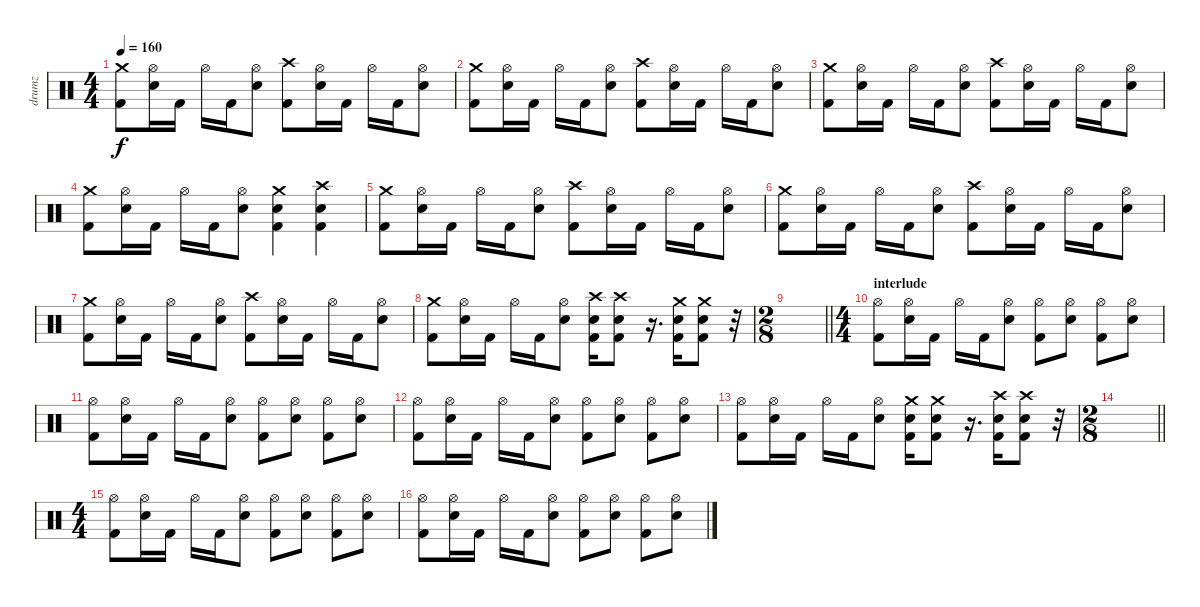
\track ("drumz" "drumz") {instrument percussion}
\staff {score}
\articulation defaults
\ts (4 4)
\tempo 160
\clef neutral
\ks c
("Crash medium (hit)" "Kick (hit) 2").8{dy f} ("Hi-Hat (open)" "Electric Snare (hit)").16 "Kick (hit) 2".16 "Hi-Hat (open)".16 "Kick (hit) 2".16 ("Hi-Hat (open)" "Electric Snare (hit)").8 ("Crash high (hit)" "Kick (hit) 2").8 ("Hi-Hat (open)" "Electric Snare (hit)").16 "Kick (hit) 2".16 "Hi-Hat (open)".16 "Kick (hit) 2".16 ("Hi-Hat (open)" "Electric Snare (hit)").8 |
("Crash medium (hit)" "Kick (hit) 2").8 ("Hi-Hat (open)" "Electric Snare (hit)").16 "Kick (hit) 2".16 "Hi-Hat (open)".16 "Kick (hit) 2".16 ("Hi-Hat (open)" "Electric Snare (hit)").8 ("Crash high (hit)" "Kick (hit) 2").8 ("Hi-Hat (open)" "Electric Snare (hit)").16 "Kick (hit) 2".16 "Hi-Hat (open)".16 "Kick (hit) 2".16 ("Hi-Hat (open)" "Electric Snare (hit)").8 |
("Crash medium (hit)" "Kick (hit) 2").8 ("Hi-Hat (open)" "Electric Snare (hit)").16 "Kick (hit) 2".16 "Hi-Hat (open)".16 "Kick (hit) 2".16 ("Hi-Hat (open)" "Electric Snare (hit)").8 ("Crash high (hit)" "Kick (hit) 2").8 ("Hi-Hat (open)" "Electric Snare (hit)").16 "Kick (hit) 2".16 "Hi-Hat (open)".16 "Kick (hit) 2".16 ("Hi-Hat (open)" "Electric Snare (hit)").8 |
("Crash medium (hit)" "Kick (hit) 2").8 ("Hi-Hat (open)" "Electric Snare (hit)").16 "Kick (hit) 2".16 "Hi-Hat (open)".16 "Kick (hit) 2".16 ("Hi-Hat (open)" "Electric Snare (hit)").8 ("Crash medium (hit)" "Electric Snare (hit)" "Kick (hit) 2").4 ("Crash high (hit)" "Electric Snare (hit)" "Kick (hit) 2").4 |
("Crash medium (hit)" "Kick (hit) 2").8 ("Hi-Hat (open)" "Electric Snare (hit)").16 "Kick (hit) 2".16 "Hi-Hat (open)".16 "Kick (hit) 2".16 ("Hi-Hat (open)" "Electric Snare (hit)").8 ("Crash high (hit)" "Kick (hit) 2").8 ("Hi-Hat (open)" "Electric Snare (hit)").16 "Kick (hit) 2".16 "Hi-Hat (open)".16 "Kick (hit) 2".16 ("Hi-Hat (open)" "Electric Snare (hit)").8 |
("Crash medium (hit)" "Kick (hit) 2").8 ("Hi-Hat (open)" "Electric Snare (hit)").16 "Kick (hit) 2".16 "Hi-Hat (open)".16 "Kick (hit) 2".16 ("Hi-Hat (open)" "Electric Snare (hit)").8 ("Crash high (hit)" "Kick (hit) 2").8 ("Hi-Hat (open)" "Electric Snare (hit)").16 "Kick (hit) 2".16 "Hi-Hat (open)".16 "Kick (hit) 2".16 ("Hi-Hat (open)" "Electric Snare (hit)").8 |
("Crash medium (hit)" "Kick (hit) 2").8 ("Hi-Hat (open)" "Electric Snare (hit)").16 "Kick (hit) 2".16 "Hi-Hat (open)".16 "Kick (hit) 2".16 ("Hi-Hat (open)" "Electric Snare (hit)").8 ("Crash high (hit)" "Kick (hit) 2").8 ("Hi-Hat (open)" "Electric Snare (hit)").16 "Kick (hit) 2".16 "Hi-Hat (open)".16 "Kick (hit) 2".16 ("Hi-Hat (open)" "Electric Snare (hit)").8 |
("Crash medium (hit)" "Kick (hit) 2").8 ("Hi-Hat (open)" "Electric Snare (hit)").16 "Kick (hit) 2".16 "Hi-Hat (open)".16 "Kick (hit) 2".16 ("Hi-Hat (open)" "Electric Snare (hit)").8 ("Crash high (hit)" "Electric Snare (hit)" "Kick (hit) 2").16 ("Crash high (hit)" "Electric Snare (hit)" "Kick (hit) 2").8 r.16{d} ("Crash medium (hit)" "Electric Snare (hit)" "Kick (hit) 2").16 ("Crash medium (hit)" "Electric Snare (hit)" "Kick (hit) 2").8 r.32 |
\ts (2 8)
\barLineRight lightlight
|
\ts (4 4)
\section ("" "interlude")
("Hi-Hat (open)" "Kick (hit) 2").8 ("Hi-Hat (open)" "Electric Snare (hit)").16 "Kick (hit) 2".16 "Hi-Hat (open)".16 "Kick (hit) 2".16 ("Hi-Hat (open)" "Electric Snare (hit)").8 ("Hi-Hat (open)" "Kick (hit) 2").8 ("Hi-Hat (open)" "Electric Snare (hit)").8 ("Hi-Hat (open)" "Kick (hit) 2").8 ("Hi-Hat (open)" "Electric Snare (hit)").8 |
("Hi-Hat (open)" "Kick (hit) 2").8 ("Hi-Hat (open)" "Electric Snare (hit)").16 "Kick (hit) 2".16 "Hi-Hat (open)".16 "Kick (hit) 2".16 ("Hi-Hat (open)" "Electric Snare (hit)").8 ("Hi-Hat (open)" "Kick (hit) 2").8 ("Hi-Hat (open)" "Electric Snare (hit)").8 ("Hi-Hat (open)" "Kick (hit) 2").8 ("Hi-Hat (open)" "Electric Snare (hit)").8 |
("Hi-Hat (open)" "Kick (hit) 2").8 ("Hi-Hat (open)" "Electric Snare (hit)").16 "Kick (hit) 2".16 "Hi-Hat (open)".16 "Kick (hit) 2".16 ("Hi-Hat (open)" "Electric Snare (hit)").8 ("Hi-Hat (open)" "Kick (hit) 2").8 ("Hi-Hat (open)" "Electric Snare (hit)").8 ("Hi-Hat (open)" "Kick (hit) 2").8 ("Hi-Hat (open)" "Electric Snare (hit)").8 |
("Hi-Hat (open)" "Kick (hit) 2").8 ("Hi-Hat (open)" "Electric Snare (hit)").16 "Kick (hit) 2".16 "Hi-Hat (open)".16 "Kick (hit) 2".16 ("Hi-Hat (open)" "Electric Snare (hit)").8 ("Crash medium (hit)" "Electric Snare (hit)" "Kick (hit) 2").16 ("Crash medium (hit)" "Electric Snare (hit)" "Kick (hit) 2").8 r.16{d} ("Crash high (hit)" "Electric Snare (hit)" "Kick (hit) 2").16 ("Crash high (hit)" "Electric Snare (hit)" "Kick (hit) 2").8 r.32 |
\ts (2 8)
\barLineRight lightlight
|
\ts (4 4)
("Hi-Hat (open)" "Kick (hit) 2").8 ("Hi-Hat (open)" "Electric Snare (hit)").16 "Kick (hit) 2".16 "Hi-Hat (open)".16 "Kick (hit) 2".16 ("Hi-Hat (open)" "Electric Snare (hit)").8 ("Hi-Hat (open)" "Kick (hit) 2").8 ("Hi-Hat (open)" "Electric Snare (hit)").8 ("Hi-Hat (open)" "Kick (hit) 2").8 ("Hi-Hat (open)" "Electric Snare (hit)").8 |
("Hi-Hat (open)" "Kick (hit) 2").8 ("Hi-Hat (open)" "Electric Snare (hit)").16 "Kick (hit) 2".16 "Hi-Hat (open)".16 "Kick (hit) 2".16 ("Hi-Hat (open)" "Electric Snare (hit)").8 ("Hi-Hat (open)" "Kick (hit) 2").8 ("Hi-Hat (open)" "Electric Snare (hit)").8 ("Hi-Hat (open)" "Kick (hit) 2").8 ("Hi-Hat (open)" "Electric Snare (hit)").8
